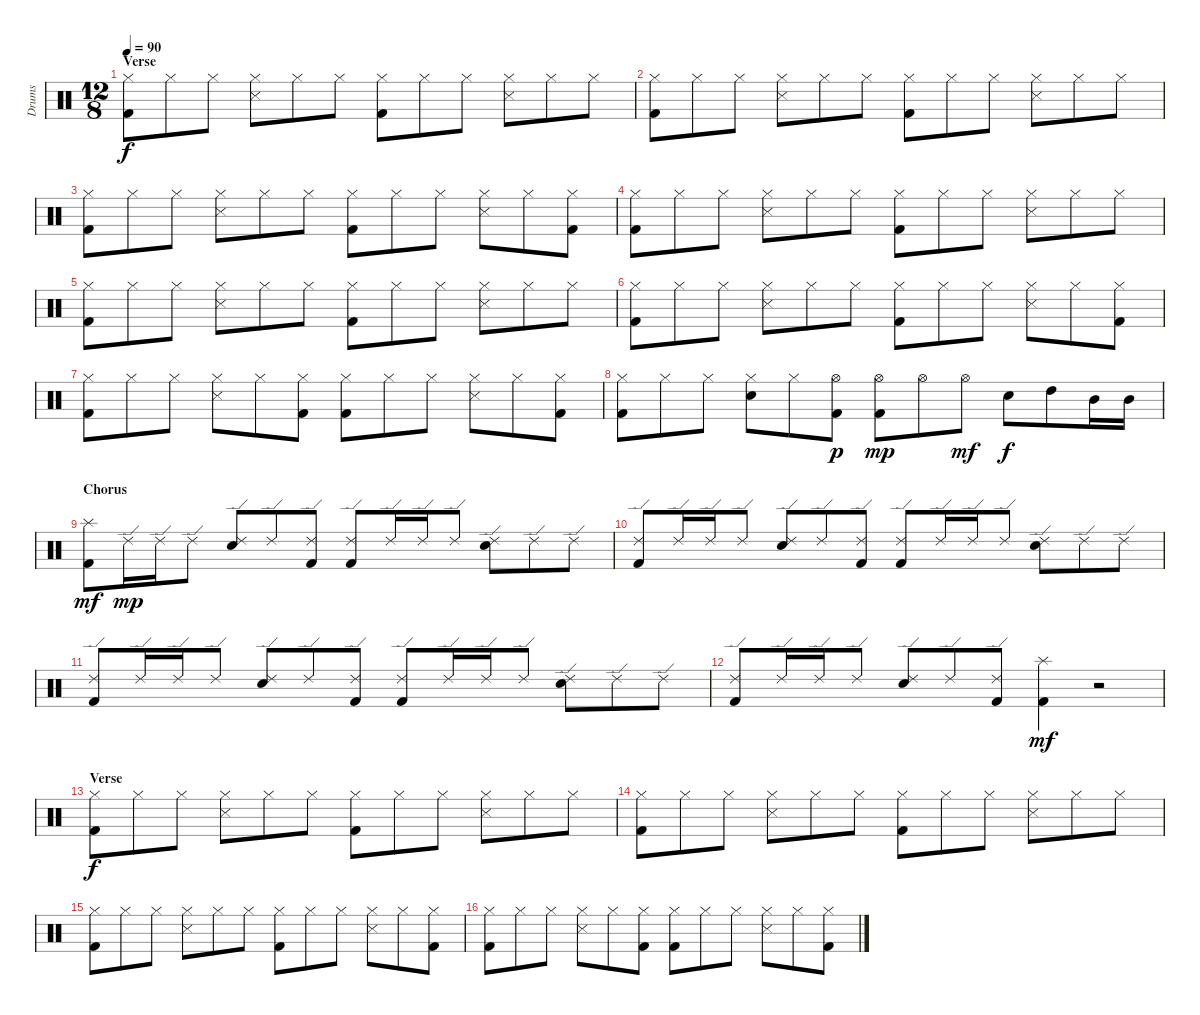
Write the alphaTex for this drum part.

\track ("Drums" "Drums") {instrument percussion}
\staff {score}
\articulation defaults
\ts (12 8)
\section ("" "Verse")
\tempo 90
\clef neutral
\ks c
("Hi-Hat (closed)" "Kick (hit) 2").8{dy f} "Hi-Hat (closed)".8 "Hi-Hat (closed)".8 ("Hi-Hat (closed)" "Snare (side stick) 3").8 "Hi-Hat (closed)".8 "Hi-Hat (closed)".8 ("Hi-Hat (closed)" "Kick (hit) 2").8 "Hi-Hat (closed)".8 "Hi-Hat (closed)".8 ("Hi-Hat (closed)" "Snare (side stick) 3").8 "Hi-Hat (closed)".8 "Hi-Hat (closed)".8 |
("Hi-Hat (closed)" "Kick (hit) 2").8 "Hi-Hat (closed)".8 "Hi-Hat (closed)".8 ("Hi-Hat (closed)" "Snare (side stick) 3").8 "Hi-Hat (closed)".8 "Hi-Hat (closed)".8 ("Hi-Hat (closed)" "Kick (hit) 2").8 "Hi-Hat (closed)".8 "Hi-Hat (closed)".8 ("Hi-Hat (closed)" "Snare (side stick) 3").8 "Hi-Hat (closed)".8 "Hi-Hat (closed)".8 |
("Hi-Hat (closed)" "Kick (hit) 2").8 "Hi-Hat (closed)".8 "Hi-Hat (closed)".8 ("Hi-Hat (closed)" "Snare (side stick) 3").8 "Hi-Hat (closed)".8 "Hi-Hat (closed)".8 ("Hi-Hat (closed)" "Kick (hit) 2").8 "Hi-Hat (closed)".8 "Hi-Hat (closed)".8 ("Hi-Hat (closed)" "Snare (side stick) 3").8 "Hi-Hat (closed)".8 ("Hi-Hat (closed)" "Kick (hit) 2").8 |
("Hi-Hat (closed)" "Kick (hit) 2").8 "Hi-Hat (closed)".8 "Hi-Hat (closed)".8 ("Hi-Hat (closed)" "Snare (side stick) 3").8 "Hi-Hat (closed)".8 "Hi-Hat (closed)".8 ("Hi-Hat (closed)" "Kick (hit) 2").8 "Hi-Hat (closed)".8 "Hi-Hat (closed)".8 ("Hi-Hat (closed)" "Snare (side stick) 3").8 "Hi-Hat (closed)".8 "Hi-Hat (closed)".8 |
("Hi-Hat (closed)" "Kick (hit) 2").8 "Hi-Hat (closed)".8 "Hi-Hat (closed)".8 ("Hi-Hat (closed)" "Snare (side stick) 3").8 "Hi-Hat (closed)".8 "Hi-Hat (closed)".8 ("Hi-Hat (closed)" "Kick (hit) 2").8 "Hi-Hat (closed)".8 "Hi-Hat (closed)".8 ("Hi-Hat (closed)" "Snare (side stick) 3").8 "Hi-Hat (closed)".8 "Hi-Hat (closed)".8 |
("Hi-Hat (closed)" "Kick (hit) 2").8 "Hi-Hat (closed)".8 "Hi-Hat (closed)".8 ("Hi-Hat (closed)" "Snare (side stick) 3").8 "Hi-Hat (closed)".8 "Hi-Hat (closed)".8 ("Hi-Hat (closed)" "Kick (hit) 2").8 "Hi-Hat (closed)".8 "Hi-Hat (closed)".8 ("Hi-Hat (closed)" "Snare (side stick) 3").8 "Hi-Hat (closed)".8 ("Hi-Hat (closed)" "Kick (hit) 2").8 |
("Hi-Hat (closed)" "Kick (hit) 2").8 "Hi-Hat (closed)".8 "Hi-Hat (closed)".8 ("Hi-Hat (closed)" "Snare (side stick) 3").8 "Hi-Hat (closed)".8 ("Hi-Hat (closed)" "Kick (hit) 2").8 ("Hi-Hat (closed)" "Kick (hit) 2").8 "Hi-Hat (closed)".8 "Hi-Hat (closed)".8 ("Hi-Hat (closed)" "Snare (side stick) 3").8 "Hi-Hat (closed)".8 ("Hi-Hat (closed)" "Kick (hit) 2").8 |
("Hi-Hat (closed)" "Kick (hit) 2").8 "Hi-Hat (closed)".8 "Hi-Hat (closed)".8 ("Hi-Hat (closed)" "Snare (hit) 2").8 "Hi-Hat (closed)".8 ("Hi-Hat (open)" "Kick (hit) 2").8{dy p} ("Hi-Hat (open)" "Kick (hit) 2").8{dy mp} "Hi-Hat (open)".8 "Hi-Hat (open)".8{dy mf} "Snare (hit) 2".8{dy f} "High Tom (hit)".8 "Mid Tom (hit)".16 "Mid Tom (hit)".16 |
\section ("" "Chorus")
("Splash (hit)" "Kick (hit) 2").8{dy mf} "Ride (edge) 2".16{dy mp} "Ride (edge) 2".16 "Ride (edge) 2".8 ("Ride (edge) 2" "Snare (hit) 2").8 "Ride (edge) 2".8 ("Ride (edge) 2" "Kick (hit) 2").8 ("Ride (edge) 2" "Kick (hit) 2").8 "Ride (edge) 2".16 "Ride (edge) 2".16 "Ride (edge) 2".8 ("Ride (edge) 2" "Snare (hit) 2").8 "Ride (edge) 2".8 "Ride (edge) 2".8 |
("Ride (edge) 2" "Kick (hit) 2").8 "Ride (edge) 2".16 "Ride (edge) 2".16 "Ride (edge) 2".8 ("Ride (edge) 2" "Snare (hit) 2").8 "Ride (edge) 2".8 ("Ride (edge) 2" "Kick (hit) 2").8 ("Ride (edge) 2" "Kick (hit) 2").8 "Ride (edge) 2".16 "Ride (edge) 2".16 "Ride (edge) 2".8 ("Ride (edge) 2" "Snare (hit) 2").8 "Ride (edge) 2".8 "Ride (edge) 2".8 |
("Ride (edge) 2" "Kick (hit) 2").8 "Ride (edge) 2".16 "Ride (edge) 2".16 "Ride (edge) 2".8 ("Ride (edge) 2" "Snare (hit) 2").8 "Ride (edge) 2".8 ("Ride (edge) 2" "Kick (hit) 2").8 ("Ride (edge) 2" "Kick (hit) 2").8 "Ride (edge) 2".16 "Ride (edge) 2".16 "Ride (edge) 2".8 ("Ride (edge) 2" "Snare (hit) 2").8 "Ride (edge) 2".8 "Ride (edge) 2".8 |
("Ride (edge) 2" "Kick (hit) 2").8 "Ride (edge) 2".16 "Ride (edge) 2".16 "Ride (edge) 2".8 ("Ride (edge) 2" "Snare (hit) 2").8 "Ride (edge) 2".8 ("Ride (edge) 2" "Kick (hit) 2").8 ("Splash (hit)" "Kick (hit) 2").4{dy mf} r.2 |
\section ("" "Verse")
("Hi-Hat (closed)" "Kick (hit) 2").8{dy f} "Hi-Hat (closed)".8 "Hi-Hat (closed)".8 ("Hi-Hat (closed)" "Snare (side stick) 3").8 "Hi-Hat (closed)".8 "Hi-Hat (closed)".8 ("Hi-Hat (closed)" "Kick (hit) 2").8 "Hi-Hat (closed)".8 "Hi-Hat (closed)".8 ("Hi-Hat (closed)" "Snare (side stick) 3").8 "Hi-Hat (closed)".8 "Hi-Hat (closed)".8 |
("Hi-Hat (closed)" "Kick (hit) 2").8 "Hi-Hat (closed)".8 "Hi-Hat (closed)".8 ("Hi-Hat (closed)" "Snare (side stick) 3").8 "Hi-Hat (closed)".8 "Hi-Hat (closed)".8 ("Hi-Hat (closed)" "Kick (hit) 2").8 "Hi-Hat (closed)".8 "Hi-Hat (closed)".8 ("Hi-Hat (closed)" "Snare (side stick) 3").8 "Hi-Hat (closed)".8 "Hi-Hat (closed)".8 |
("Hi-Hat (closed)" "Kick (hit) 2").8 "Hi-Hat (closed)".8 "Hi-Hat (closed)".8 ("Hi-Hat (closed)" "Snare (side stick) 3").8 "Hi-Hat (closed)".8 "Hi-Hat (closed)".8 ("Hi-Hat (closed)" "Kick (hit) 2").8 "Hi-Hat (closed)".8 "Hi-Hat (closed)".8 ("Hi-Hat (closed)" "Snare (side stick) 3").8 "Hi-Hat (closed)".8 ("Hi-Hat (closed)" "Kick (hit) 2").8 |
("Hi-Hat (closed)" "Kick (hit) 2").8 "Hi-Hat (closed)".8 "Hi-Hat (closed)".8 ("Hi-Hat (closed)" "Snare (side stick) 3").8 "Hi-Hat (closed)".8 ("Hi-Hat (closed)" "Kick (hit) 2").8 ("Hi-Hat (closed)" "Kick (hit) 2").8 "Hi-Hat (closed)".8 "Hi-Hat (closed)".8 ("Hi-Hat (closed)" "Snare (side stick) 3").8 "Hi-Hat (closed)".8 ("Hi-Hat (closed)" "Kick (hit) 2").8
